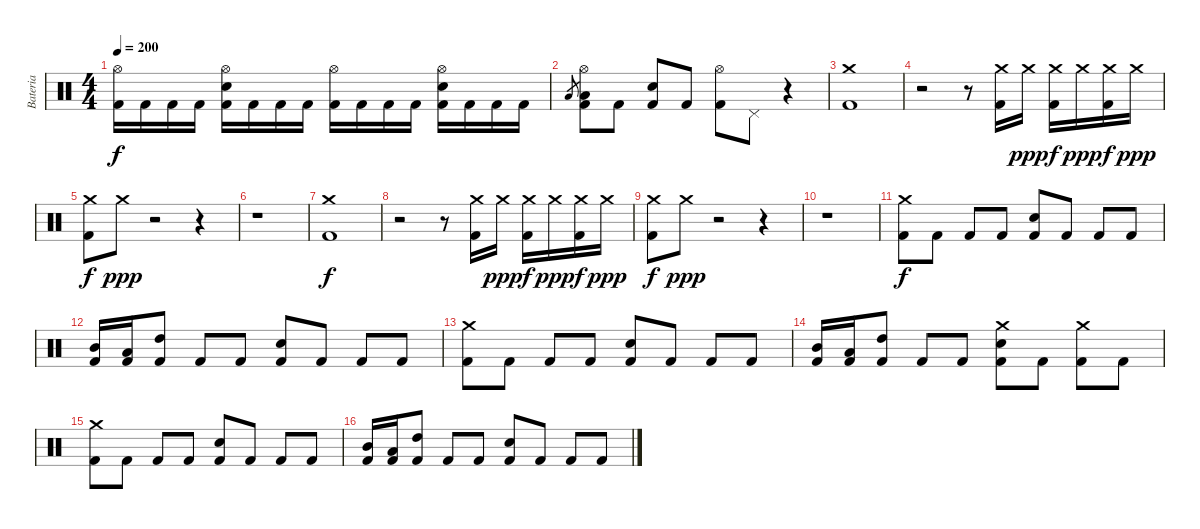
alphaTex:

\track ("Bateria" "Bateria") {instrument percussion}
\staff {score}
\articulation defaults
\ts (4 4)
\tempo 200
\clef neutral
\ks c
("Hi-Hat (open)" "Kick (hit) 2").16{dy f} "Kick (hit) 2".16 "Kick (hit) 2".16 "Kick (hit) 2".16 ("Hi-Hat (open)" "Electric Snare (hit)" "Kick (hit) 2").16 "Kick (hit) 2".16 "Kick (hit) 2".16 "Kick (hit) 2".16 ("Hi-Hat (open)" "Kick (hit) 2").16 "Kick (hit) 2".16 "Kick (hit) 2".16 "Kick (hit) 2".16 ("Hi-Hat (open)" "Electric Snare (hit)" "Kick (hit) 2").16 "Kick (hit) 2".16 "Kick (hit) 2".16 "Kick (hit) 2".16 |
"Low Tom (hit)".8{gr} ("Hi-Hat (open)" "Low Tom (hit)" "Kick (hit) 2").8 "Kick (hit) 2".8 ("Electric Snare (hit)" "Kick (hit) 2").8 "Kick (hit) 2".8 ("Hi-Hat (open)" "Kick (hit) 2").8 "Pedal Hi-Hat (hit)".8 r.4 |
("Crash medium (hit)" "Kick (hit) 2").1 |
r.2 r.8 ("Crash medium (hit)" "Kick (hit) 2").16 "Crash medium (hit)".16{dy ppp} ("Crash medium (hit)" "Kick (hit) 2").16{dy f} "Crash medium (hit)".16{dy ppp} ("Crash medium (hit)" "Kick (hit) 2").16{dy f} "Crash medium (hit)".16{dy ppp} |
("Crash medium (hit)" "Kick (hit) 2").8{dy f} "Crash medium (hit)".8{dy ppp} r.2 r.4 |
r.1 |
("Crash medium (hit)" "Kick (hit) 2").1{dy f} |
r.2 r.8 ("Crash medium (hit)" "Kick (hit) 2").16 "Crash medium (hit)".16{dy ppp} ("Crash medium (hit)" "Kick (hit) 2").16{dy f} "Crash medium (hit)".16{dy ppp} ("Crash medium (hit)" "Kick (hit) 2").16{dy f} "Crash medium (hit)".16{dy ppp} |
("Crash medium (hit)" "Kick (hit) 2").8{dy f} "Crash medium (hit)".8{dy ppp} r.2 r.4 |
r.1 |
("Crash medium (hit)" "Kick (hit) 2").8{dy f} "Kick (hit) 2".8 "Kick (hit) 2".8 "Kick (hit) 2".8 ("Electric Snare (hit)" "Kick (hit) 2").8 "Kick (hit) 2".8 "Kick (hit) 2".8 "Kick (hit) 2".8 |
("Mid Tom (hit)" "Kick (hit) 2").16 ("Low Tom (hit)" "Kick (hit) 2").16 ("High Tom (hit)" "Kick (hit) 2").8 "Kick (hit) 2".8 "Kick (hit) 2".8 ("Electric Snare (hit)" "Kick (hit) 2").8 "Kick (hit) 2".8 "Kick (hit) 2".8 "Kick (hit) 2".8 |
("Crash medium (hit)" "Kick (hit) 2").8 "Kick (hit) 2".8 "Kick (hit) 2".8 "Kick (hit) 2".8 ("Electric Snare (hit)" "Kick (hit) 2").8 "Kick (hit) 2".8 "Kick (hit) 2".8 "Kick (hit) 2".8 |
("Mid Tom (hit)" "Kick (hit) 2").16 ("Low Tom (hit)" "Kick (hit) 2").16 ("High Tom (hit)" "Kick (hit) 2").8 "Kick (hit) 2".8 "Kick (hit) 2".8 ("Crash medium (hit)" "Electric Snare (hit)" "Kick (hit) 2").8 "Kick (hit) 2".8 ("Crash medium (hit)" "Kick (hit) 2").8 "Kick (hit) 2".8 |
("Crash medium (hit)" "Kick (hit) 2").8 "Kick (hit) 2".8 "Kick (hit) 2".8 "Kick (hit) 2".8 ("Electric Snare (hit)" "Kick (hit) 2").8 "Kick (hit) 2".8 "Kick (hit) 2".8 "Kick (hit) 2".8 |
("Mid Tom (hit)" "Kick (hit) 2").16 ("Low Tom (hit)" "Kick (hit) 2").16 ("High Tom (hit)" "Kick (hit) 2").8 "Kick (hit) 2".8 "Kick (hit) 2".8 ("Electric Snare (hit)" "Kick (hit) 2").8 "Kick (hit) 2".8 "Kick (hit) 2".8 "Kick (hit) 2".8
